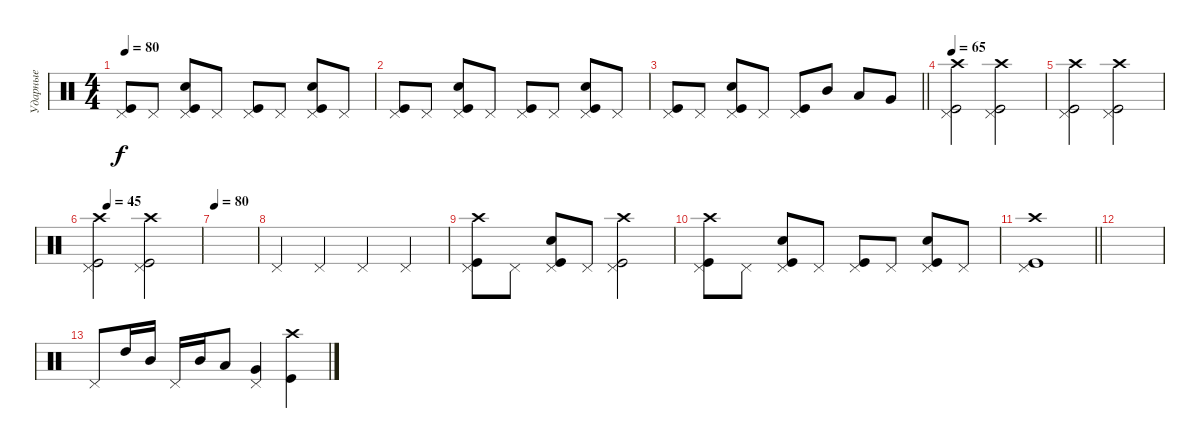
\track ("Ударные" "Ударные") {instrument percussion}
\staff {score}
\articulation defaults
\ts (4 4)
\tempo 80
\clef neutral
\ks c
("Kick (hit)" "Pedal Hi-Hat (hit)").8{dy f} "Pedal Hi-Hat (hit)".8 ("Kick (hit)" "Snare (hit) 2" "Pedal Hi-Hat (hit)").8 "Pedal Hi-Hat (hit)".8 ("Kick (hit)" "Pedal Hi-Hat (hit)").8 "Pedal Hi-Hat (hit)".8 ("Kick (hit)" "Snare (hit) 2" "Pedal Hi-Hat (hit)").8 "Pedal Hi-Hat (hit)".8 |
("Kick (hit)" "Pedal Hi-Hat (hit)").8 "Pedal Hi-Hat (hit)".8 ("Kick (hit)" "Snare (hit) 2" "Pedal Hi-Hat (hit)").8 "Pedal Hi-Hat (hit)".8 ("Kick (hit)" "Pedal Hi-Hat (hit)").8 "Pedal Hi-Hat (hit)".8 ("Kick (hit)" "Snare (hit) 2" "Pedal Hi-Hat (hit)").8 "Pedal Hi-Hat (hit)".8 |
\barLineRight lightlight
("Kick (hit)" "Pedal Hi-Hat (hit)").8 "Pedal Hi-Hat (hit)".8 ("Kick (hit)" "Snare (hit) 2" "Pedal Hi-Hat (hit)").8 "Pedal Hi-Hat (hit)".8 ("Kick (hit)" "Pedal Hi-Hat (hit)").8 "Mid Tom (hit)".8 "Low Tom (hit)".8 "Very Low Tom (hit)".8 |
\tempo 65
("Kick (hit)" "Pedal Hi-Hat (hit)" "Crash high (hit)").2 ("Kick (hit)" "Pedal Hi-Hat (hit)" "Crash high (hit)").2 |
("Kick (hit)" "Pedal Hi-Hat (hit)" "Crash high (hit)").2 ("Kick (hit)" "Pedal Hi-Hat (hit)" "Crash high (hit)").2 |
\tempo (45 0.125)
("Kick (hit)" "Pedal Hi-Hat (hit)" "Crash high (hit)").2 ("Kick (hit)" "Pedal Hi-Hat (hit)" "Crash high (hit)").2 |
\tempo 80
|
"Pedal Hi-Hat (hit)".4 "Pedal Hi-Hat (hit)".4 "Pedal Hi-Hat (hit)".4 "Pedal Hi-Hat (hit)".4 |
("Kick (hit)" "Crash high (hit)" "Pedal Hi-Hat (hit)").8 "Pedal Hi-Hat (hit)".8 ("Kick (hit)" "Snare (hit) 2" "Pedal Hi-Hat (hit)").8 "Pedal Hi-Hat (hit)".8 ("Kick (hit)" "Crash high (hit)" "Pedal Hi-Hat (hit)").2 |
("Kick (hit)" "Crash high (hit)" "Pedal Hi-Hat (hit)").8 "Pedal Hi-Hat (hit)".8 ("Kick (hit)" "Snare (hit) 2" "Pedal Hi-Hat (hit)").8 "Pedal Hi-Hat (hit)".8 ("Kick (hit)" "Pedal Hi-Hat (hit)").8 "Pedal Hi-Hat (hit)".8 ("Kick (hit)" "Snare (hit) 2" "Pedal Hi-Hat (hit)").8 "Pedal Hi-Hat (hit)".8 |
\barLineRight lightlight
("Kick (hit)" "Crash high (hit)" "Pedal Hi-Hat (hit)").1 |
|
"Pedal Hi-Hat (hit)".8 "High Tom (hit)".16 "Mid Tom (hit)".16 "Pedal Hi-Hat (hit)".16 "Mid Tom (hit)".16 "Low Tom (hit)".8 ("Pedal Hi-Hat (hit)" "Very Low Tom (hit)").4 ("Kick (hit)" "Crash high (hit)").4
